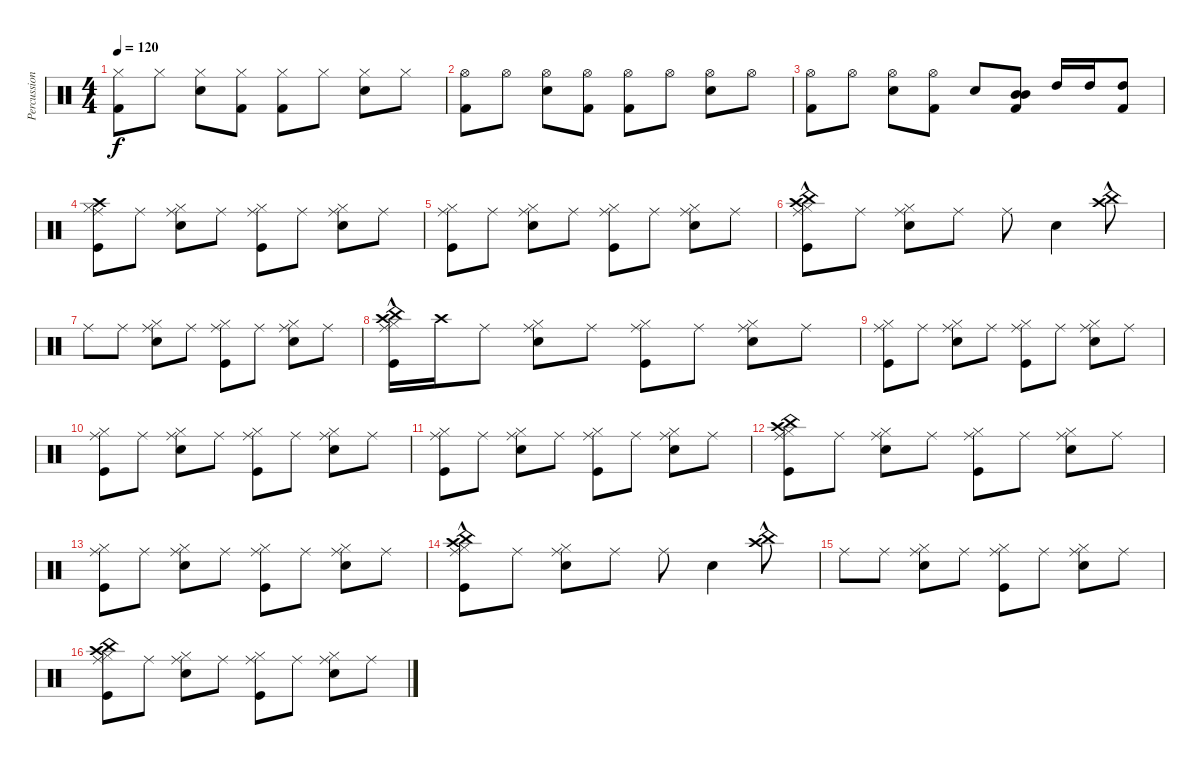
\track ("Percussion" "Percussion") {instrument percussion}
\staff {score}
\articulation defaults
\ts (4 4)
\tempo 120
\clef neutral
\ks c
("Hi-Hat (closed)" "Kick (hit) 2").8{dy f} "Hi-Hat (closed)".8 ("Snare (hit) 2" "Hi-Hat (closed)").8 ("Kick (hit) 2" "Hi-Hat (closed)").8 ("Kick (hit) 2" "Hi-Hat (closed)").8 "Hi-Hat (closed)".8 ("Hi-Hat (closed)" "Snare (hit) 2").8 "Hi-Hat (closed)".8 |
("Hi-Hat (open)" "Kick (hit) 2").8 "Hi-Hat (open)".8 ("Hi-Hat (open)" "Snare (hit) 2").8 ("Hi-Hat (open)" "Kick (hit) 2").8 ("Hi-Hat (open)" "Kick (hit) 2").8 "Hi-Hat (open)".8 ("Hi-Hat (open)" "Snare (hit) 2").8 "Hi-Hat (open)".8 |
("Hi-Hat (open)" "Kick (hit) 2").8 "Hi-Hat (open)".8 ("Hi-Hat (open)" "Snare (hit) 2").8 ("Hi-Hat (open)" "Kick (hit) 2").8 "Snare (hit) 2".8 ("Mid Tom (hit)" "Mid Tom (hit)" "Kick (hit) 2").8 "High Tom (hit)".16 "High Tom (hit)".16 ("Kick (hit) 2" "High Tom (hit)").8 |
("Crash high (hit)" "Ride (middle)" "Hi-Hat (closed)" "Kick (hit)").8 "Ride (middle)".8 ("Ride (middle)" "Hi-Hat (closed)" "Snare (hit) 2").8 "Ride (middle)".8 ("Ride (middle)" "Hi-Hat (closed)" "Kick (hit)").8 "Ride (middle)".8 ("Ride (middle)" "Hi-Hat (closed)" "Snare (hit) 2").8 "Ride (middle)".8 |
("Hi-Hat (closed)" "Kick (hit)" "Ride (middle)").8 "Ride (middle)".8 ("Ride (middle)" "Hi-Hat (closed)" "Snare (hit) 2").8 "Ride (middle)".8 ("Ride (middle)" "Hi-Hat (closed)" "Kick (hit)").8 "Ride (middle)".8 ("Ride (middle)" "Hi-Hat (closed)" "Snare (hit) 2").8 "Ride (middle)".8 |
("Ride (middle)"{hac} "Hi-Hat (closed)"{hac} "Kick (hit)"{hac} "China (hit)"{hac} "Crash high (hit)"{hac}).8 "Ride (middle)".8 ("Ride (middle)" "Hi-Hat (closed)" "Snare (hit) 2").8 "Ride (middle)".8 "Ride (middle)".8 "Snare (hit) 2".4 ("Crash high (hit)"{hac} "China (hit)").8 |
"Ride (middle)".8 "Ride (middle)".8 ("Ride (middle)" "Hi-Hat (closed)" "Snare (hit) 2").8 "Ride (middle)".8 ("Ride (middle)" "Hi-Hat (closed)" "Kick (hit)").8 "Ride (middle)".8 ("Ride (middle)" "Hi-Hat (closed)" "Snare (hit) 2").8 "Ride (middle)".8 |
("Crash high (hit)" "Ride (middle)"{hac} "Hi-Hat (closed)"{hac} "Kick (hit)"{hac} "China (hit)"{hac}).16 "Crash high (hit)".16 "Ride (middle)".8 ("Ride (middle)" "Hi-Hat (closed)" "Snare (hit) 2").8 "Ride (middle)".8 ("Ride (middle)" "Hi-Hat (closed)" "Kick (hit)").8 "Ride (middle)".8 ("Ride (middle)" "Hi-Hat (closed)" "Snare (hit) 2").8 "Ride (middle)".8 |
("Hi-Hat (closed)" "Kick (hit)" "Ride (middle)").8 "Ride (middle)".8 ("Ride (middle)" "Hi-Hat (closed)" "Snare (hit) 2").8 "Ride (middle)".8 ("Ride (middle)" "Hi-Hat (closed)" "Kick (hit)").8 "Ride (middle)".8 ("Ride (middle)" "Hi-Hat (closed)" "Snare (hit) 2").8 "Ride (middle)".8 |
("Hi-Hat (closed)" "Kick (hit)" "Ride (middle)").8 "Ride (middle)".8 ("Ride (middle)" "Hi-Hat (closed)" "Snare (hit) 2").8 "Ride (middle)".8 ("Ride (middle)" "Hi-Hat (closed)" "Kick (hit)").8 "Ride (middle)".8 ("Ride (middle)" "Hi-Hat (closed)" "Snare (hit) 2").8 "Ride (middle)".8 |
("Hi-Hat (closed)" "Kick (hit)" "Ride (middle)").8 "Ride (middle)".8 ("Ride (middle)" "Hi-Hat (closed)" "Snare (hit) 2").8 "Ride (middle)".8 ("Ride (middle)" "Hi-Hat (closed)" "Kick (hit)").8 "Ride (middle)".8 ("Ride (middle)" "Hi-Hat (closed)" "Snare (hit) 2").8 "Ride (middle)".8 |
("Crash high (hit)" "Ride (middle)" "Hi-Hat (closed)" "Kick (hit)" "China (hit)").8 "Ride (middle)".8 ("Ride (middle)" "Hi-Hat (closed)" "Snare (hit) 2").8 "Ride (middle)".8 ("Ride (middle)" "Hi-Hat (closed)" "Kick (hit)").8 "Ride (middle)".8 ("Ride (middle)" "Hi-Hat (closed)" "Snare (hit) 2").8 "Ride (middle)".8 |
("Hi-Hat (closed)" "Kick (hit)" "Ride (middle)").8 "Ride (middle)".8 ("Ride (middle)" "Hi-Hat (closed)" "Snare (hit) 2").8 "Ride (middle)".8 ("Ride (middle)" "Hi-Hat (closed)" "Kick (hit)").8 "Ride (middle)".8 ("Ride (middle)" "Hi-Hat (closed)" "Snare (hit) 2").8 "Ride (middle)".8 |
("Ride (middle)"{hac} "Hi-Hat (closed)"{hac} "Kick (hit)"{hac} "China (hit)"{hac} "Crash high (hit)"{hac}).8 "Ride (middle)".8 ("Ride (middle)" "Hi-Hat (closed)" "Snare (hit) 2").8 "Ride (middle)".8 "Ride (middle)".8 "Snare (hit) 2".4 ("Crash high (hit)"{hac} "China (hit)").8 |
"Ride (middle)".8 "Ride (middle)".8 ("Ride (middle)" "Hi-Hat (closed)" "Snare (hit) 2").8 "Ride (middle)".8 ("Ride (middle)" "Hi-Hat (closed)" "Kick (hit)").8 "Ride (middle)".8 ("Ride (middle)" "Hi-Hat (closed)" "Snare (hit) 2").8 "Ride (middle)".8 |
("Crash high (hit)" "Ride (middle)" "Hi-Hat (closed)" "Kick (hit)" "China (hit)").8 "Ride (middle)".8 ("Ride (middle)" "Hi-Hat (closed)" "Snare (hit) 2").8 "Ride (middle)".8 ("Ride (middle)" "Hi-Hat (closed)" "Kick (hit)").8 "Ride (middle)".8 ("Ride (middle)" "Hi-Hat (closed)" "Snare (hit) 2").8 "Ride (middle)".8
